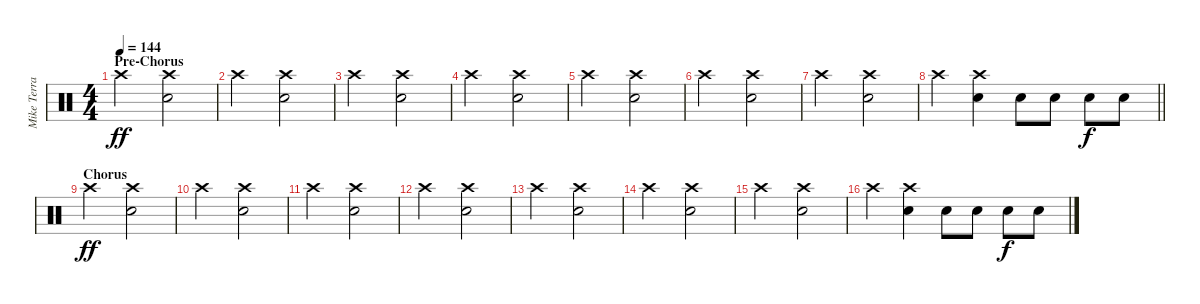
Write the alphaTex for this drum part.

\track ("Mike Terrana" "Mike Terra") {instrument percussion}
\staff {score}
\articulation defaults
\ts (4 4)
\section ("" "Pre-Chorus")
\tempo 144
\clef neutral
\ks c "Crash high (hit)".2{dy ff}
("Snare (hit) 2" "Crash high (hit)").2 |
"Crash high (hit)".2 ("Snare (hit) 2" "Crash high (hit)").2 |
"Crash high (hit)".2 ("Snare (hit) 2" "Crash high (hit)").2 |
"Crash high (hit)".2 ("Snare (hit) 2" "Crash high (hit)").2 |
"Crash high (hit)".2 ("Snare (hit) 2" "Crash high (hit)").2 |
"Crash high (hit)".2 ("Snare (hit) 2" "Crash high (hit)").2 |
"Crash high (hit)".2 ("Snare (hit) 2" "Crash high (hit)").2 |
\barLineRight lightlight "Crash high (hit)".4
("Snare (hit) 2" "Crash high (hit)").4 "Snare (hit) 2".8 "Snare (hit) 2".8 "Snare (hit) 2".8{dy f} "Snare (hit) 2".8 |
\section ("" "Chorus")
"Crash high (hit)".2{dy ff} ("Snare (hit) 2" "Crash high (hit)").2 |
"Crash high (hit)".2 ("Snare (hit) 2" "Crash high (hit)").2 |
"Crash high (hit)".2 ("Snare (hit) 2" "Crash high (hit)").2 |
"Crash high (hit)".2 ("Snare (hit) 2" "Crash high (hit)").2 |
"Crash high (hit)".2 ("Snare (hit) 2" "Crash high (hit)").2 |
"Crash high (hit)".2 ("Snare (hit) 2" "Crash high (hit)").2 |
"Crash high (hit)".2 ("Snare (hit) 2" "Crash high (hit)").2 |
"Crash high (hit)".4 ("Snare (hit) 2" "Crash high (hit)").4 "Snare (hit) 2".8 "Snare (hit) 2".8 "Snare (hit) 2".8{dy f} "Snare (hit) 2".8
